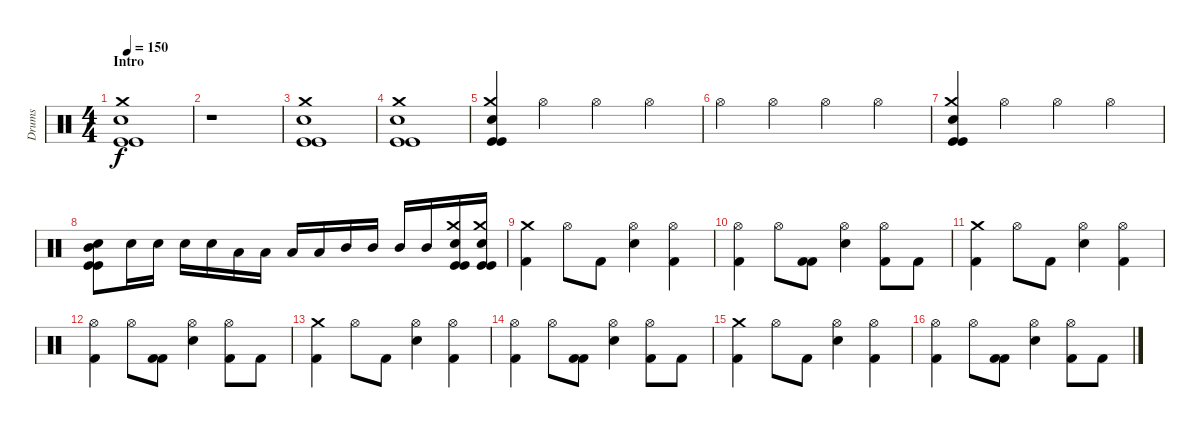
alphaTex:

\track ("Drums" "Drums") {instrument percussion}
\staff {score}
\articulation defaults
\ts (4 4)
\section ("" "Intro")
\tempo 150
\clef neutral
\ks c
("Snare (hit) 2" "Crash medium (hit)" "Kick (hit)" "Kick (hit)").1{dy f} |
r.1 |
("Snare (hit) 2" "Crash medium (hit)" "Kick (hit)" "Kick (hit)").1 |
("Snare (hit) 2" "Crash medium (hit)" "Kick (hit)" "Kick (hit)").1 |
("Snare (hit) 2" "Crash medium (hit)" "Kick (hit)" "Kick (hit)").4 "Hi-Hat (open)".4 "Hi-Hat (open)".4 "Hi-Hat (open)".4 |
"Hi-Hat (open)".4 "Hi-Hat (open)".4 "Hi-Hat (open)".4 "Hi-Hat (open)".4 |
("Snare (hit) 2" "Crash medium (hit)" "Kick (hit)" "Kick (hit)").4 "Hi-Hat (open)".4 "Hi-Hat (open)".4 "Hi-Hat (open)".4 |
("Snare (hit) 2" "Mid Tom (hit)" "Kick (hit)" "Kick (hit)").8 "Snare (hit) 2".16 "Snare (hit) 2".16 "Snare (hit) 2".16 "Snare (hit) 2".16 "Low Tom (hit)".16 "Low Tom (hit)".16 "Low Tom (hit)".16 "Low Tom (hit)".16 "Mid Tom (hit)".16 "Mid Tom (hit)".16 "Mid Tom (hit)".16 "Mid Tom (hit)".16 ("Snare (hit) 2" "Kick (hit)" "Kick (hit)" "Crash medium (hit)").16 ("Snare (hit) 2" "Kick (hit)" "Kick (hit)" "Crash medium (hit)").16 |
("Crash medium (hit)" "Kick (hit) 2").4 "Hi-Hat (open)".8 "Kick (hit) 2".8 ("Hi-Hat (open)" "Electric Snare (hit)").4 ("Hi-Hat (open)" "Kick (hit) 2").4 |
("Hi-Hat (open)" "Kick (hit) 2").4 "Hi-Hat (open)".8 ("Kick (hit) 2" "Kick (hit) 2").8 ("Hi-Hat (open)" "Electric Snare (hit)").4 ("Hi-Hat (open)" "Kick (hit) 2").8 "Kick (hit) 2".8 |
("Crash medium (hit)" "Kick (hit) 2").4 "Hi-Hat (open)".8 "Kick (hit) 2".8 ("Hi-Hat (open)" "Electric Snare (hit)").4 ("Hi-Hat (open)" "Kick (hit) 2").4 |
("Hi-Hat (open)" "Kick (hit) 2").4 "Hi-Hat (open)".8 ("Kick (hit) 2" "Kick (hit) 2").8 ("Hi-Hat (open)" "Electric Snare (hit)").4 ("Hi-Hat (open)" "Kick (hit) 2").8 "Kick (hit) 2".8 |
("Crash medium (hit)" "Kick (hit) 2").4 "Hi-Hat (open)".8 "Kick (hit) 2".8 ("Hi-Hat (open)" "Electric Snare (hit)").4 ("Hi-Hat (open)" "Kick (hit) 2").4 |
("Hi-Hat (open)" "Kick (hit) 2").4 "Hi-Hat (open)".8 ("Kick (hit) 2" "Kick (hit) 2").8 ("Hi-Hat (open)" "Electric Snare (hit)").4 ("Hi-Hat (open)" "Kick (hit) 2").8 "Kick (hit) 2".8 |
("Crash medium (hit)" "Kick (hit) 2").4 "Hi-Hat (open)".8 "Kick (hit) 2".8 ("Hi-Hat (open)" "Electric Snare (hit)").4 ("Hi-Hat (open)" "Kick (hit) 2").4 |
("Hi-Hat (open)" "Kick (hit) 2").4 "Hi-Hat (open)".8 ("Kick (hit) 2" "Kick (hit) 2").8 ("Hi-Hat (open)" "Electric Snare (hit)").4 ("Hi-Hat (open)" "Kick (hit) 2").8 "Kick (hit) 2".8
